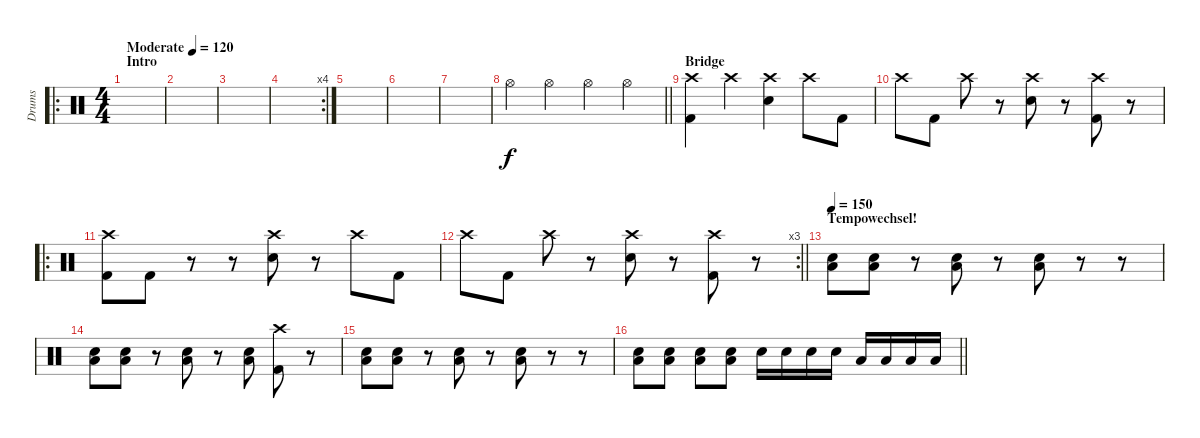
\track ("Drums" "Drums") {instrument percussion}
\staff {score}
\articulation defaults
\ro
\ts (4 4)
\section ("" "Intro")
\tempo (120 "Moderate")
\clef neutral
\ks c
|
|
|
\rc 4
|
|
|
|
\barLineRight lightlight "Hi-Hat (open)".4 "Hi-Hat (open)".4 "Hi-Hat (open)".4 "Hi-Hat (open)".4
|
\section ("" "Bridge")
("Crash high (hit)" "Kick (hit) 2").4 "Crash high (hit)".4 ("Crash high (hit)" "Snare (hit) 2").4 "Crash high (hit)".8 "Kick (hit) 2".8 |
"Crash high (hit)".8 "Kick (hit) 2".8 "Crash high (hit)".8 r.8 ("Crash high (hit)" "Snare (hit) 2").8 r.8 ("Crash high (hit)" "Kick (hit) 2").8 r.8 |
\ro
("Crash high (hit)" "Kick (hit) 2").8 "Kick (hit) 2".8 r.8 r.8 ("Crash high (hit)" "Snare (hit) 2").8 r.8 "Crash high (hit)".8 "Kick (hit) 2".8 |
\rc 3
\barLineRight lightlight "Crash high (hit)".8 "Kick (hit) 2".8 "Crash high (hit)".8
r.8 ("Crash high (hit)" "Snare (hit) 2").8 r.8 ("Crash high (hit)" "Kick (hit) 2").8 r.8 |
\section ("" "Tempowechsel!")
\tempo 155
\tempo 150
("Snare (hit) 2" "Low Floor Tom (hit)").8 ("Snare (hit) 2" "Low Floor Tom (hit)").8 r.8 ("Snare (hit) 2" "Low Floor Tom (hit)").8 r.8 ("Snare (hit) 2" "Low Floor Tom (hit)").8 r.8 r.8 |
("Snare (hit) 2" "Low Floor Tom (hit)").8 ("Snare (hit) 2" "Low Floor Tom (hit)").8 r.8 ("Snare (hit) 2" "Low Floor Tom (hit)").8 r.8 ("Snare (hit) 2" "Low Floor Tom (hit)").8 ("Crash high (hit)" "Kick (hit) 2").8 r.8 |
("Snare (hit) 2" "Low Floor Tom (hit)").8 ("Snare (hit) 2" "Low Floor Tom (hit)").8 r.8 ("Snare (hit) 2" "Low Floor Tom (hit)").8 r.8 ("Snare (hit) 2" "Low Floor Tom (hit)").8 r.8 r.8 |
\barLineRight lightlight
("Snare (hit) 2" "Low Floor Tom (hit)").8 ("Snare (hit) 2" "Low Floor Tom (hit)").8 ("Snare (hit) 2" "Low Floor Tom (hit)").8 ("Snare (hit) 2" "Low Floor Tom (hit)").8 "Snare (hit) 2".16 "Snare (hit) 2".16 "Snare (hit) 2".16 "Snare (hit) 2".16 "Low Tom (hit)".16 "Low Tom (hit)".16 "Low Floor Tom (hit)".16 "Low Floor Tom (hit)".16
